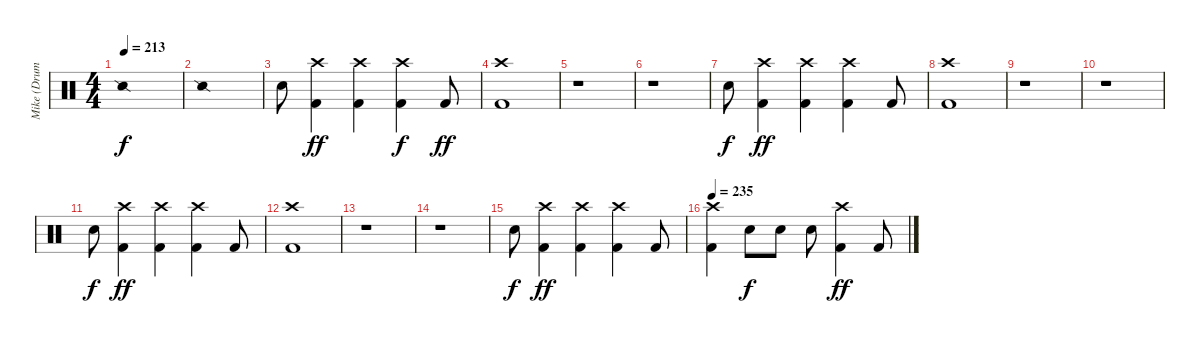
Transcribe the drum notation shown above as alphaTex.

\track ("Mike (Drums)" "Mike (Drum") {instrument percussion}
\staff {score}
\articulation defaults
\ts (4 4)
\tempo 213
\clef neutral
\ks c "Snare (side stick) 2".1{dy f}
|
"Snare (side stick) 2".1 |
"Electric Snare (hit)".8 ("Crash high (hit)" "Kick (hit) 2").4{dy ff} ("Crash high (hit)" "Kick (hit) 2").4 ("Crash high (hit)" "Kick (hit) 2").4{dy f} "Kick (hit) 2".8{dy ff} |
("Crash high (hit)" "Kick (hit) 2").1 |
r.1 |
r.1 |
"Electric Snare (hit)".8{dy f} ("Crash high (hit)" "Kick (hit) 2").4{dy ff} ("Crash high (hit)" "Kick (hit) 2").4 ("Crash high (hit)" "Kick (hit) 2").4 "Kick (hit) 2".8 |
("Crash high (hit)" "Kick (hit) 2").1 |
r.1 |
r.1 |
"Electric Snare (hit)".8{dy f} ("Crash high (hit)" "Kick (hit) 2").4{dy ff} ("Crash high (hit)" "Kick (hit) 2").4 ("Crash high (hit)" "Kick (hit) 2").4 "Kick (hit) 2".8 |
("Crash high (hit)" "Kick (hit) 2").1 |
r.1 |
r.1 |
"Electric Snare (hit)".8{dy f} ("Crash high (hit)" "Kick (hit) 2").4{dy ff} ("Crash high (hit)" "Kick (hit) 2").4 ("Crash high (hit)" "Kick (hit) 2").4 "Kick (hit) 2".8 |
\tempo 235
("Crash high (hit)" "Kick (hit) 2").4 "Electric Snare (hit)".8{dy f} "Electric Snare (hit)".8 "Electric Snare (hit)".8 ("Crash high (hit)" "Kick (hit) 2").4{dy ff} "Kick (hit) 2".8
